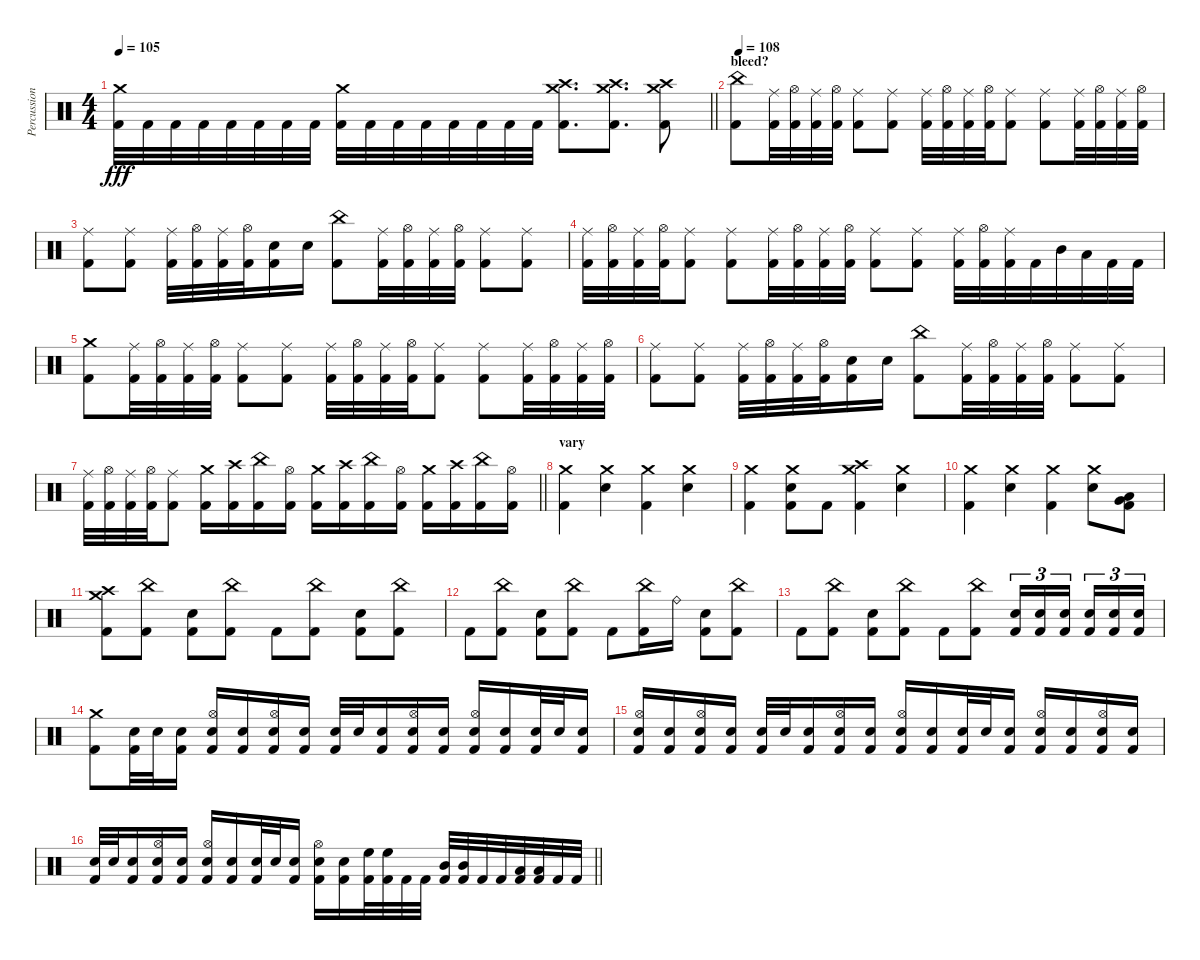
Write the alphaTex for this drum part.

\track ("Percussion" "Percussion") {instrument percussion}
\staff {score}
\articulation defaults
\ts (4 4)
\tempo 105
\clef neutral
\barLineRight lightlight
\ks c
("Crash medium (hit)" "Kick (hit) 2").32{dy fff} "Kick (hit) 2".32 "Kick (hit) 2".32 "Kick (hit) 2".32 "Kick (hit) 2".32 "Kick (hit) 2".32 "Kick (hit) 2".32 "Kick (hit) 2".32 ("Crash medium (hit)" "Kick (hit) 2").32 "Kick (hit) 2".32 "Kick (hit) 2".32 "Kick (hit) 2".32 "Kick (hit) 2".32 "Kick (hit) 2".32 "Kick (hit) 2".32 "Kick (hit) 2".32 ("Crash medium (hit)" "Crash high (hit)" "Kick (hit) 2").8{d} ("Crash medium (hit)" "Crash high (hit)" "Kick (hit) 2").8{d} ("Crash medium (hit)" "Crash high (hit)" "Kick (hit) 2").8 |
\section ("" "bleed?")
\tempo 108
("China (hit)" "Kick (hit) 2").8 ("Ride (middle)" "Kick (hit) 2").32 ("Hi-Hat (open)" "Kick (hit) 2").32 ("Ride (middle)" "Kick (hit) 2").32 ("Hi-Hat (open)" "Kick (hit) 2").32 ("Ride (middle)" "Kick (hit) 2").8 ("Ride (middle)" "Kick (hit) 2").8 ("Ride (middle)" "Kick (hit) 2").32 ("Hi-Hat (open)" "Kick (hit) 2").32 ("Ride (middle)" "Kick (hit) 2").32 ("Hi-Hat (open)" "Kick (hit) 2").32 ("Ride (middle)" "Kick (hit) 2").8 ("Ride (middle)" "Kick (hit) 2").8 ("Ride (middle)" "Kick (hit) 2").32 ("Hi-Hat (open)" "Kick (hit) 2").32 ("Ride (middle)" "Kick (hit) 2").32 ("Hi-Hat (open)" "Kick (hit) 2").32 |
("Ride (middle)" "Kick (hit) 2").8 ("Ride (middle)" "Kick (hit) 2").8 ("Ride (middle)" "Kick (hit) 2").32 ("Hi-Hat (open)" "Kick (hit) 2").32 ("Ride (middle)" "Kick (hit) 2").32 ("Hi-Hat (open)" "Kick (hit) 2").32 ("Snare (hit) 2" "Kick (hit) 2").16 "Snare (hit) 2".16 ("China (hit)" "Kick (hit) 2").8 ("Ride (middle)" "Kick (hit) 2").32 ("Hi-Hat (open)" "Kick (hit) 2").32 ("Ride (middle)" "Kick (hit) 2").32 ("Hi-Hat (open)" "Kick (hit) 2").32 ("Ride (middle)" "Kick (hit) 2").8 ("Ride (middle)" "Kick (hit) 2").8 |
("Ride (middle)" "Kick (hit) 2").32 ("Hi-Hat (open)" "Kick (hit) 2").32 ("Ride (middle)" "Kick (hit) 2").32 ("Hi-Hat (open)" "Kick (hit) 2").32 ("Ride (middle)" "Kick (hit) 2").8 ("Ride (middle)" "Kick (hit) 2").8 ("Ride (middle)" "Kick (hit) 2").32 ("Hi-Hat (open)" "Kick (hit) 2").32 ("Ride (middle)" "Kick (hit) 2").32 ("Hi-Hat (open)" "Kick (hit) 2").32 ("Ride (middle)" "Kick (hit) 2").8 ("Ride (middle)" "Kick (hit) 2").8 ("Ride (middle)" "Kick (hit) 2").32 ("Hi-Hat (open)" "Kick (hit) 2").32 ("Ride (middle)" "Kick (hit) 2").32 "Kick (hit) 2".32 "Mid Tom (hit)".32 "Low Tom (hit)".32 "Kick (hit) 2".32 "Kick (hit) 2".32 |
("Crash medium (hit)" "Kick (hit) 2").8 ("Ride (middle)" "Kick (hit) 2").32 ("Hi-Hat (open)" "Kick (hit) 2").32 ("Ride (middle)" "Kick (hit) 2").32 ("Hi-Hat (open)" "Kick (hit) 2").32 ("Ride (middle)" "Kick (hit) 2").8 ("Ride (middle)" "Kick (hit) 2").8 ("Ride (middle)" "Kick (hit) 2").32 ("Hi-Hat (open)" "Kick (hit) 2").32 ("Ride (middle)" "Kick (hit) 2").32 ("Hi-Hat (open)" "Kick (hit) 2").32 ("Ride (middle)" "Kick (hit) 2").8 ("Ride (middle)" "Kick (hit) 2").8 ("Ride (middle)" "Kick (hit) 2").32 ("Hi-Hat (open)" "Kick (hit) 2").32 ("Ride (middle)" "Kick (hit) 2").32 ("Hi-Hat (open)" "Kick (hit) 2").32 |
("Ride (middle)" "Kick (hit) 2").8 ("Ride (middle)" "Kick (hit) 2").8 ("Ride (middle)" "Kick (hit) 2").32 ("Hi-Hat (open)" "Kick (hit) 2").32 ("Ride (middle)" "Kick (hit) 2").32 ("Hi-Hat (open)" "Kick (hit) 2").32 ("Snare (hit) 2" "Kick (hit) 2").16 "Snare (hit) 2".16 ("China (hit)" "Kick (hit) 2").8 ("Ride (middle)" "Kick (hit) 2").32 ("Hi-Hat (open)" "Kick (hit) 2").32 ("Ride (middle)" "Kick (hit) 2").32 ("Hi-Hat (open)" "Kick (hit) 2").32 ("Ride (middle)" "Kick (hit) 2").8 ("Ride (middle)" "Kick (hit) 2").8 |
\barLineRight lightlight
("Ride (middle)" "Kick (hit) 2").32 ("Hi-Hat (open)" "Kick (hit) 2").32 ("Ride (middle)" "Kick (hit) 2").32 ("Hi-Hat (open)" "Kick (hit) 2").32 ("Ride (middle)" "Kick (hit) 2").8 ("Crash medium (hit)" "Kick (hit) 2").16 ("Crash high (hit)" "Kick (hit) 2").16 ("China (hit)" "Kick (hit) 2").16 ("Hi-Hat (open)" "Kick (hit) 2").16 ("Crash medium (hit)" "Kick (hit) 2").16 ("Crash high (hit)" "Kick (hit) 2").16 ("China (hit)" "Kick (hit) 2").16 ("Hi-Hat (open)" "Kick (hit) 2").16 ("Crash medium (hit)" "Kick (hit) 2").16 ("Crash high (hit)" "Kick (hit) 2").16 ("China (hit)" "Kick (hit) 2").16 ("Hi-Hat (open)" "Kick (hit) 2").16 |
\section ("" "vary")
("Crash medium (hit)" "Kick (hit) 2").4 ("Crash medium (hit)" "Snare (hit) 2").4 ("Crash medium (hit)" "Kick (hit) 2").4 ("Crash medium (hit)" "Snare (hit) 2").4 |
("Crash medium (hit)" "Kick (hit) 2").4 ("Crash medium (hit)" "Snare (hit) 2" "Kick (hit) 2").8 "Kick (hit) 2".8 ("Crash medium (hit)" "Crash high (hit)" "Kick (hit) 2").4 ("Crash medium (hit)" "Snare (hit) 2").4 |
("Crash medium (hit)" "Kick (hit) 2").4 ("Crash medium (hit)" "Snare (hit) 2").4 ("Crash medium (hit)" "Kick (hit) 2").4 ("Crash medium (hit)" "Snare (hit) 2").8 ("Very Low Tom (hit)" "Low Floor Tom (hit)" "Kick (hit) 2").8 |
("Crash medium (hit)" "Crash high (hit)" "Kick (hit) 2").8 ("China (hit)" "Kick (hit) 2").8 ("Snare (hit) 2" "Kick (hit) 2").8 ("China (hit)" "Kick (hit) 2").8 "Kick (hit) 2".8 ("China (hit)" "Kick (hit) 2").8 ("Snare (hit) 2" "Kick (hit) 2").8 ("China (hit)" "Kick (hit) 2").8 |
"Kick (hit) 2".8 ("China (hit)" "Kick (hit) 2").8 ("Snare (hit) 2" "Kick (hit) 2").8 ("China (hit)" "Kick (hit) 2").8 "Kick (hit) 2".8 ("China (hit)" "Kick (hit) 2").16 "Ride (bell)".16 ("Snare (hit) 2" "Kick (hit) 2").8 ("China (hit)" "Kick (hit) 2").8 |
"Kick (hit) 2".8 ("China (hit)" "Kick (hit) 2").8 ("Snare (hit) 2" "Kick (hit) 2").8 ("China (hit)" "Kick (hit) 2").8 "Kick (hit) 2".8 ("China (hit)" "Kick (hit) 2").8 ("Snare (hit) 2" "Kick (hit) 2").16{tu (3 2)} ("Snare (hit) 2" "Kick (hit) 2").16{tu (3 2)} ("Snare (hit) 2" "Kick (hit) 2").16{tu (3 2) beam splitsecondary} ("Snare (hit) 2" "Kick (hit) 2").16{tu (3 2)} ("Snare (hit) 2" "Kick (hit) 2").16{tu (3 2)} ("Snare (hit) 2" "Kick (hit) 2").16{tu (3 2)} |
("Crash medium (hit)" "Kick (hit) 2").8 ("Snare (hit) 2" "Kick (hit) 2").32 "Snare (hit) 2".32 ("Snare (hit) 2" "Kick (hit) 2").16 ("Snare (hit) 2" "Hi-Hat (open)" "Kick (hit) 2").16 ("Snare (hit) 2" "Kick (hit) 2").16 ("Snare (hit) 2" "Hi-Hat (open)" "Kick (hit) 2").16 ("Snare (hit) 2" "Kick (hit) 2").16 ("Snare (hit) 2" "Kick (hit) 2").32 "Snare (hit) 2".32 ("Snare (hit) 2" "Kick (hit) 2").16 ("Snare (hit) 2" "Hi-Hat (open)" "Kick (hit) 2").16 ("Snare (hit) 2" "Kick (hit) 2").16 ("Snare (hit) 2" "Hi-Hat (open)" "Kick (hit) 2").16 ("Snare (hit) 2" "Kick (hit) 2").16 ("Snare (hit) 2" "Kick (hit) 2").32 "Snare (hit) 2".32 ("Snare (hit) 2" "Kick (hit) 2").16 |
("Snare (hit) 2" "Hi-Hat (open)" "Kick (hit) 2").16 ("Snare (hit) 2" "Kick (hit) 2").16 ("Snare (hit) 2" "Hi-Hat (open)" "Kick (hit) 2").16 ("Snare (hit) 2" "Kick (hit) 2").16 ("Snare (hit) 2" "Kick (hit) 2").32 "Snare (hit) 2".32 ("Snare (hit) 2" "Kick (hit) 2").16 ("Snare (hit) 2" "Hi-Hat (open)" "Kick (hit) 2").16 ("Snare (hit) 2" "Kick (hit) 2").16 ("Snare (hit) 2" "Hi-Hat (open)" "Kick (hit) 2").16 ("Snare (hit) 2" "Kick (hit) 2").16 ("Snare (hit) 2" "Kick (hit) 2").32 "Snare (hit) 2".32 ("Snare (hit) 2" "Kick (hit) 2").16 ("Snare (hit) 2" "Hi-Hat (open)" "Kick (hit) 2").16 ("Snare (hit) 2" "Kick (hit) 2").16 ("Snare (hit) 2" "Hi-Hat (open)" "Kick (hit) 2").16 ("Snare (hit) 2" "Kick (hit) 2").16 |
\barLineRight lightlight
("Snare (hit) 2" "Kick (hit) 2").32 "Snare (hit) 2".32 ("Snare (hit) 2" "Kick (hit) 2").16 ("Snare (hit) 2" "Hi-Hat (open)" "Kick (hit) 2").16 ("Snare (hit) 2" "Kick (hit) 2").16 ("Snare (hit) 2" "Hi-Hat (open)" "Kick (hit) 2").16 ("Snare (hit) 2" "Kick (hit) 2").16 ("Snare (hit) 2" "Kick (hit) 2").32 "Snare (hit) 2".32 ("Snare (hit) 2" "Kick (hit) 2").16 ("Snare (hit) 2" "Hi-Hat (open)" "Kick (hit) 2").16 ("Snare (hit) 2" "Kick (hit) 2").16 ("High Floor Tom (hit)" "Kick (hit) 2").32 ("High Floor Tom (hit)" "Kick (hit) 2").32 "Kick (hit) 2".32 "Kick (hit) 2".32 ("Mid Tom (hit)" "Kick (hit) 2").32 ("Mid Tom (hit)" "Kick (hit) 2").32 "Kick (hit) 2".32 "Kick (hit) 2".32 ("Low Tom (hit)" "Kick (hit) 2").32 ("Low Tom (hit)" "Kick (hit) 2").32 "Kick (hit) 2".32 "Kick (hit) 2".32
